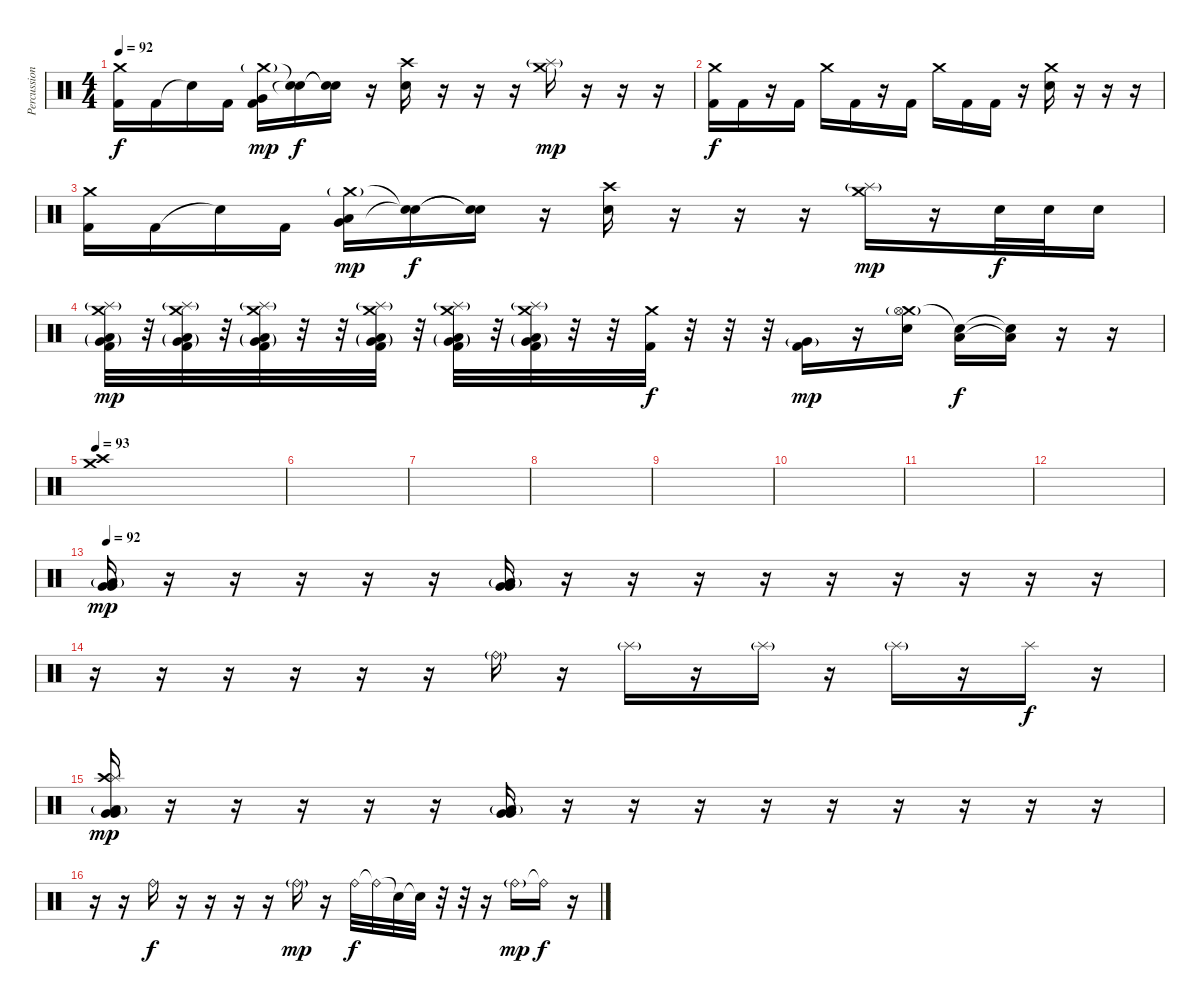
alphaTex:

\track ("Percussion" "Percussion") {instrument percussion}
\staff {score}
\articulation defaults
\ts (4 4)
\tempo 92
\clef neutral
\ks c
("Crash medium (hit)" "Kick (hit) 2").16{dy f} "Kick (hit) 2".16 "Snare (hit)"{t}.16 "Kick (hit) 2".16 ("Crash medium (hit)"{g} "Very Low Tom (hit)" "Kick (hit) 2").16{dy mp} ("Snare (hit)"{t} "Snare (hit)"{t}).16{dy f} ("Snare (hit)"{t} "Snare (hit)"{t}).16 r.16 ("Crash high (hit)" "Snare (hit) 2").16 r.16 r.16 r.16 ("Crash medium (hit)" "Splash (hit)"{g}).16{dy mp} r.16 r.16 r.16 |
("Crash medium (hit)" "Kick (hit) 2").16{dy f} "Kick (hit) 2".16 r.16 "Kick (hit) 2".16 "Crash medium (hit)".16 "Kick (hit) 2".16 r.16 "Kick (hit) 2".16 "Crash medium (hit)".16 "Kick (hit) 2".16 "Kick (hit) 2".16 r.16 ("Crash medium (hit)" "Snare (hit) 2").16 r.16 r.16 r.16 |
("Crash medium (hit)" "Kick (hit) 2").16 "Kick (hit) 2".16 "Snare (hit)"{t}.16 "Kick (hit) 2".16 ("Crash medium (hit)"{g} "Very Low Tom (hit)" "Low Tom (hit)").16{dy mp} ("Snare (hit)"{t} "Snare (hit)"{t}).16{dy f} ("Snare (hit)"{t} "Snare (hit)"{t}).16 r.16 ("Crash high (hit)" "Snare (hit) 2").16 r.16 r.16 r.16 ("Crash medium (hit)" "Splash (hit)"{g}).16{dy mp} r.16 "Snare (hit) 2".32{dy f} "Snare (hit) 2".32 "Snare (hit) 2".16 |
("Crash medium (hit)" "Splash (hit)"{g} "Very Low Tom (hit)"{g} "Low Floor Tom (hit)"{g} "Kick (hit) 2").32{dy mp} r.32 ("Crash medium (hit)" "Splash (hit)"{g} "Very Low Tom (hit)"{g} "Low Floor Tom (hit)"{g} "Kick (hit) 2").32 r.32 ("Crash medium (hit)" "Splash (hit)"{g} "Very Low Tom (hit)"{g} "Low Floor Tom (hit)"{g} "Kick (hit) 2").32 r.32 r.32 ("Crash medium (hit)" "Splash (hit)"{g} "Very Low Tom (hit)"{g} "Low Floor Tom (hit)"{g} "Kick (hit) 2").32 r.32 ("Crash medium (hit)" "Splash (hit)"{g} "Very Low Tom (hit)"{g} "Low Floor Tom (hit)"{g} "Kick (hit) 2").32 r.32 ("Crash medium (hit)" "Splash (hit)"{g} "Very Low Tom (hit)"{g} "Low Floor Tom (hit)"{g} "Kick (hit) 2").32 r.32 r.32 ("Crash medium (hit)" "Kick (hit) 2").32{dy f} r.32 r.32 r.32 ("Very Low Tom (hit)"{g} "Kick (hit) 2").16{dy mp} r.16 ("Crash medium (hit)" "Hi-Hat (open)"{g} "Snare (hit) 2").16 ("Snare (hit)"{t} "Low Tom (hit)").16{dy f} ("Snare (hit)"{t} "Low Tom (hit)"{t}).16 r.16 r.16 |
\tempo 93
("Crash high (hit)" "Crash medium (hit)").1 |
|
|
|
|
|
|
|
\tempo 92
("Very Low Tom (hit)" "Very Low Tom (hit)" "Low Floor Tom (hit)"{g}).16{dy mp} r.16 r.16 r.16 r.16 r.16 ("Very Low Tom (hit)" "Very Low Tom (hit)" "Low Floor Tom (hit)"{g}).16 r.16 r.16 r.16 r.16 r.16 r.16 r.16 r.16 r.16 |
r.16 r.16 r.16 r.16 r.16 r.16 "Ride (bell)"{g}.16 r.16 "Splash (hit)"{g}.16 r.16 "Splash (hit)"{g}.16 r.16 "Splash (hit)"{g}.16 r.16 "Splash (hit)".16{dy f} r.16 |
("Crash high (hit)" "Splash (hit)" "Very Low Tom (hit)" "Very Low Tom (hit)" "Low Floor Tom (hit)"{g}).16{dy mp} r.16 r.16 r.16 r.16 r.16 ("Very Low Tom (hit)" "Very Low Tom (hit)" "Low Floor Tom (hit)"{g}).16 r.16 r.16 r.16 r.16 r.16 r.16 r.16 r.16 r.16 |
r.16 r.16 "Ride (bell)".16{dy f} r.16 r.16 r.16 r.16 "Ride (bell)"{g}.16{dy mp} r.16 "Ride (bell)".32{dy f} "Ride (bell)"{t}.32 "Snare (hit)"{t}.32 "Snare (hit)"{t}.32 r.32 r.32 r.16 "Ride (bell)"{g}.16{dy mp} "Ride (bell)"{t}.16{dy f} r.16
